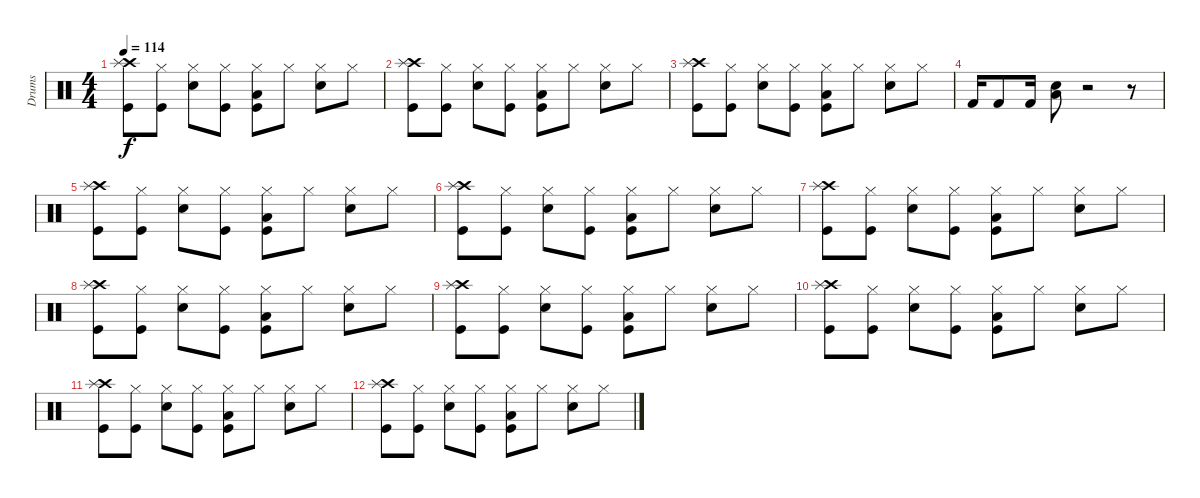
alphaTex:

\track ("Drums" "Drums") {instrument percussion}
\staff {score}
\articulation defaults
\ts (4 4)
\tempo 114
\clef neutral
\ks c
("Crash high (hit)" "Splash (hit)" "Kick (hit)").8{dy f} ("Hi-Hat (closed)" "Kick (hit)").8 ("Hi-Hat (closed)" "Snare (hit) 2").8 ("Hi-Hat (closed)" "Kick (hit)").8 ("Hi-Hat (closed)" "Low Floor Tom (hit)" "Kick (hit)").8 "Hi-Hat (closed)".8 ("Hi-Hat (closed)" "Snare (hit) 2").8 "Hi-Hat (closed)".8 |
("Crash high (hit)" "Splash (hit)" "Kick (hit)").8 ("Hi-Hat (closed)" "Kick (hit)").8 ("Hi-Hat (closed)" "Snare (hit) 2").8 ("Hi-Hat (closed)" "Kick (hit)").8 ("Hi-Hat (closed)" "Low Floor Tom (hit)" "Kick (hit)").8 "Hi-Hat (closed)".8 ("Hi-Hat (closed)" "Snare (hit) 2").8 "Hi-Hat (closed)".8 |
("Crash high (hit)" "Splash (hit)" "Kick (hit)").8 ("Hi-Hat (closed)" "Kick (hit)").8 ("Hi-Hat (closed)" "Snare (hit) 2").8 ("Hi-Hat (closed)" "Kick (hit)").8 ("Hi-Hat (closed)" "Low Floor Tom (hit)" "Kick (hit)").8 "Hi-Hat (closed)".8 ("Hi-Hat (closed)" "Snare (hit) 2").8 "Hi-Hat (closed)".8 |
"Kick (hit) 2".16 "Kick (hit) 2".8 "Kick (hit) 2".16 ("Low Floor Tom (hit)" "Snare (hit) 2").8 r.2 r.8 |
("Crash high (hit)" "Splash (hit)" "Kick (hit)").8 ("Hi-Hat (closed)" "Kick (hit)").8 ("Hi-Hat (closed)" "Snare (hit) 2").8 ("Hi-Hat (closed)" "Kick (hit)").8 ("Hi-Hat (closed)" "Low Floor Tom (hit)" "Kick (hit)").8 "Hi-Hat (closed)".8 ("Hi-Hat (closed)" "Snare (hit) 2").8 "Hi-Hat (closed)".8 |
("Crash high (hit)" "Splash (hit)" "Kick (hit)").8 ("Hi-Hat (closed)" "Kick (hit)").8 ("Hi-Hat (closed)" "Snare (hit) 2").8 ("Hi-Hat (closed)" "Kick (hit)").8 ("Hi-Hat (closed)" "Low Floor Tom (hit)" "Kick (hit)").8 "Hi-Hat (closed)".8 ("Hi-Hat (closed)" "Snare (hit) 2").8 "Hi-Hat (closed)".8 |
("Crash high (hit)" "Splash (hit)" "Kick (hit)").8 ("Hi-Hat (closed)" "Kick (hit)").8 ("Hi-Hat (closed)" "Snare (hit) 2").8 ("Hi-Hat (closed)" "Kick (hit)").8 ("Hi-Hat (closed)" "Low Floor Tom (hit)" "Kick (hit)").8 "Hi-Hat (closed)".8 ("Hi-Hat (closed)" "Snare (hit) 2").8 "Hi-Hat (closed)".8 |
("Crash high (hit)" "Splash (hit)" "Kick (hit)").8 ("Hi-Hat (closed)" "Kick (hit)").8 ("Hi-Hat (closed)" "Snare (hit) 2").8 ("Hi-Hat (closed)" "Kick (hit)").8 ("Hi-Hat (closed)" "Low Floor Tom (hit)" "Kick (hit)").8 "Hi-Hat (closed)".8 ("Hi-Hat (closed)" "Snare (hit) 2").8 "Hi-Hat (closed)".8 |
("Crash high (hit)" "Splash (hit)" "Kick (hit)").8 ("Hi-Hat (closed)" "Kick (hit)").8 ("Hi-Hat (closed)" "Snare (hit) 2").8 ("Hi-Hat (closed)" "Kick (hit)").8 ("Hi-Hat (closed)" "Low Floor Tom (hit)" "Kick (hit)").8 "Hi-Hat (closed)".8 ("Hi-Hat (closed)" "Snare (hit) 2").8 "Hi-Hat (closed)".8 |
("Crash high (hit)" "Splash (hit)" "Kick (hit)").8 ("Hi-Hat (closed)" "Kick (hit)").8 ("Hi-Hat (closed)" "Snare (hit) 2").8 ("Hi-Hat (closed)" "Kick (hit)").8 ("Hi-Hat (closed)" "Low Floor Tom (hit)" "Kick (hit)").8 "Hi-Hat (closed)".8 ("Hi-Hat (closed)" "Snare (hit) 2").8 "Hi-Hat (closed)".8 |
("Crash high (hit)" "Splash (hit)" "Kick (hit)").8{volume 0} ("Hi-Hat (closed)" "Kick (hit)").8 ("Hi-Hat (closed)" "Snare (hit) 2").8 ("Hi-Hat (closed)" "Kick (hit)").8 ("Hi-Hat (closed)" "Low Floor Tom (hit)" "Kick (hit)").8 "Hi-Hat (closed)".8 ("Hi-Hat (closed)" "Snare (hit) 2").8 "Hi-Hat (closed)".8 |
("Crash high (hit)" "Splash (hit)" "Kick (hit)").8 ("Hi-Hat (closed)" "Kick (hit)").8 ("Hi-Hat (closed)" "Snare (hit) 2").8 ("Hi-Hat (closed)" "Kick (hit)").8 ("Hi-Hat (closed)" "Low Floor Tom (hit)" "Kick (hit)").8 "Hi-Hat (closed)".8 ("Hi-Hat (closed)" "Snare (hit) 2").8 "Hi-Hat (closed)".8
